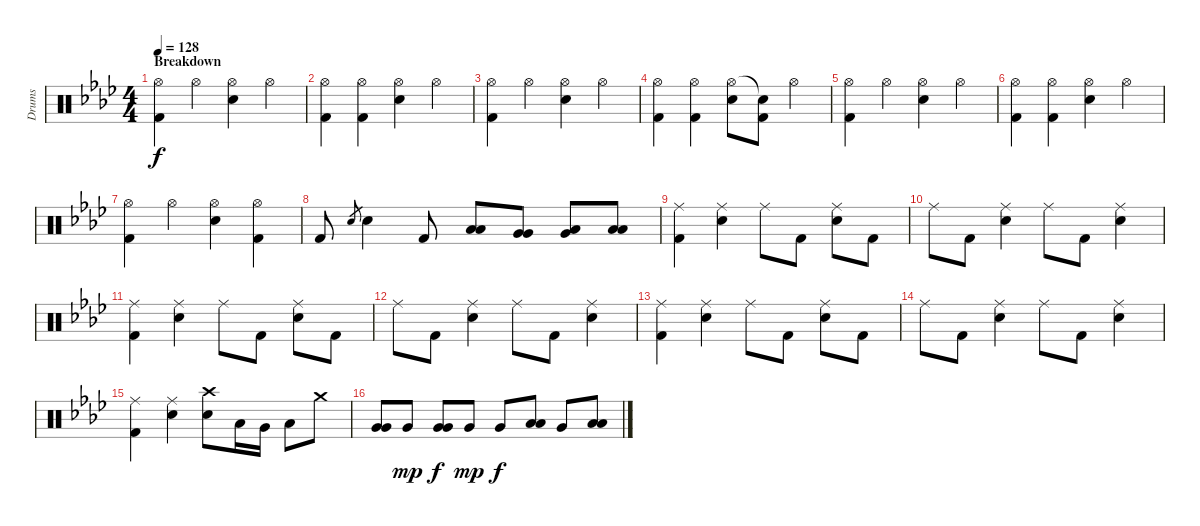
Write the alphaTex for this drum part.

\track ("Drums" "Drums") {instrument percussion}
\staff {score}
\articulation defaults
\ts (4 4)
\section ("" "Breakdown")
\tempo 128
\clef neutral
\ks fminor
("Hi-Hat (open)" "Kick (hit) 2").4{dy f} "Hi-Hat (open)".4 ("Hi-Hat (open)" "Electric Snare (hit)").4 "Hi-Hat (open)".4 |
("Hi-Hat (open)" "Kick (hit) 2").4 ("Hi-Hat (open)" "Kick (hit) 2").4 ("Hi-Hat (open)" "Electric Snare (hit)").4 "Hi-Hat (open)".4 |
("Hi-Hat (open)" "Kick (hit) 2").4 "Hi-Hat (open)".4 ("Hi-Hat (open)" "Electric Snare (hit)").4 "Hi-Hat (open)".4 |
("Hi-Hat (open)" "Kick (hit) 2").4 ("Hi-Hat (open)" "Kick (hit) 2").4 ("Hi-Hat (open)" "Electric Snare (hit)").8 ("Snare (hit)"{t} "Kick (hit) 2").8 "Hi-Hat (open)".4 |
("Hi-Hat (open)" "Kick (hit) 2").4 "Hi-Hat (open)".4 ("Hi-Hat (open)" "Electric Snare (hit)").4 "Hi-Hat (open)".4 |
("Hi-Hat (open)" "Kick (hit) 2").4 ("Hi-Hat (open)" "Kick (hit) 2").4 ("Hi-Hat (open)" "Electric Snare (hit)").4 "Hi-Hat (open)".4 |
("Hi-Hat (open)" "Kick (hit) 2").4 "Hi-Hat (open)".4 ("Hi-Hat (open)" "Electric Snare (hit)").4 ("Hi-Hat (open)" "Kick (hit) 2").4 |
"Kick (hit) 2".8 "Electric Snare (hit)".8{gr} "Electric Snare (hit)".4 "Kick (hit) 2".8 ("Low Tom (hit)" "Low Tom (hit)").8 ("Very Low Tom (hit)" "Very Low Tom (hit)").8 ("Very Low Tom (hit)" "Low Floor Tom (hit)").8 ("Low Floor Tom (hit)" "Low Floor Tom (hit)").8 |
("Ride (middle)" "Kick (hit) 2").4 ("Ride (middle)" "Electric Snare (hit)").4 "Ride (middle)".8 "Kick (hit) 2".8 ("Ride (middle)" "Electric Snare (hit)").8 "Kick (hit) 2".8 |
"Ride (middle)".8 "Kick (hit) 2".8 ("Ride (middle)" "Electric Snare (hit)").4 "Ride (middle)".8 "Kick (hit) 2".8 ("Ride (middle)" "Electric Snare (hit)").4 |
("Ride (middle)" "Kick (hit) 2").4 ("Ride (middle)" "Electric Snare (hit)").4 "Ride (middle)".8 "Kick (hit) 2".8 ("Ride (middle)" "Electric Snare (hit)").8 "Kick (hit) 2".8 |
"Ride (middle)".8 "Kick (hit) 2".8 ("Ride (middle)" "Electric Snare (hit)").4 "Ride (middle)".8 "Kick (hit) 2".8 ("Ride (middle)" "Electric Snare (hit)").4 |
("Ride (middle)" "Kick (hit) 2").4 ("Ride (middle)" "Electric Snare (hit)").4 "Ride (middle)".8 "Kick (hit) 2".8 ("Ride (middle)" "Electric Snare (hit)").8 "Kick (hit) 2".8 |
"Ride (middle)".8 "Kick (hit) 2".8 ("Ride (middle)" "Electric Snare (hit)").4 "Ride (middle)".8 "Kick (hit) 2".8 ("Ride (middle)" "Electric Snare (hit)").4 |
("Ride (middle)" "Kick (hit) 2").4 ("Ride (middle)" "Electric Snare (hit)").4 ("Crash high (hit)" "Electric Snare (hit)").8 "Low Tom (hit)".16 "Very Low Tom (hit)".16 "Low Floor Tom (hit)".8 "Crash medium (hit)".8 |
("Very Low Tom (hit)" "Very Low Tom (hit)").8 "Very Low Tom (hit)".8{dy mp} ("Very Low Tom (hit)" "Very Low Tom (hit)").8{dy f} "Very Low Tom (hit)".8{dy mp} "Very Low Tom (hit)".8{dy f} ("Low Tom (hit)" "Low Tom (hit)").8 "Very Low Tom (hit)".8 ("Low Floor Tom (hit)" "Low Floor Tom (hit)").8
